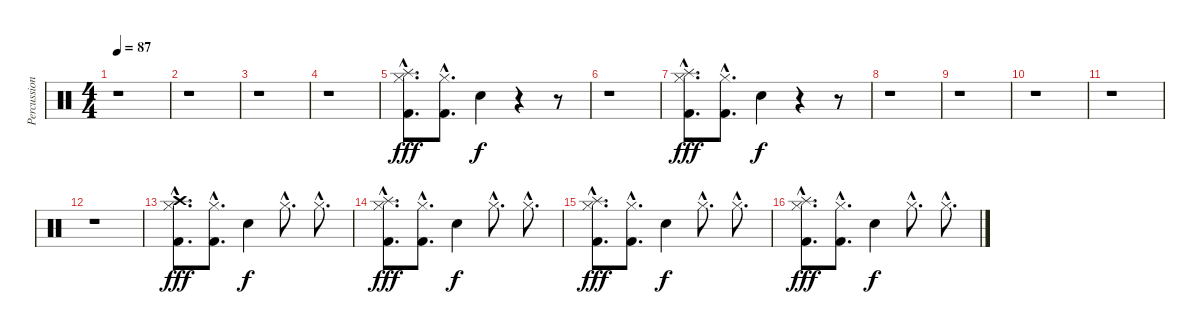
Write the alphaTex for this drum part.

\track ("Percussions" "Percussion") {instrument percussion}
\staff {score}
\articulation defaults
\ts (4 4)
\tempo 87
\clef neutral
\ks c
r.1{dy fff} |
r.1 |
r.1 |
r.1 |
("Hi-Hat (closed)"{hac} "Kick (hit) 2"{hac} "Splash (hit)"{hac}).8{d} ("Hi-Hat (closed)"{hac} "Kick (hit) 2"{hac}).8{d} "Electric Snare (hit)".4{dy f} r.4 r.8 |
r.1 |
("Hi-Hat (closed)"{hac} "Kick (hit) 2"{hac} "Splash (hit)"{hac}).8{d dy fff} ("Hi-Hat (closed)"{hac} "Kick (hit) 2"{hac}).8{d} "Electric Snare (hit)".4{dy f} r.4 r.8 |
r.1 |
r.1 |
r.1 |
r.1 |
r.1 |
("Hi-Hat (closed)"{hac} "Kick (hit) 2"{hac} "Crash high (hit)"{hac}).8{d dy fff} ("Hi-Hat (closed)"{hac} "Kick (hit) 2"{hac}).8{d} "Electric Snare (hit)".4{dy f} "Hi-Hat (closed)"{hac}.8{d} "Hi-Hat (closed)"{hac}.8{d} |
("Hi-Hat (closed)"{hac} "Kick (hit) 2"{hac} "Splash (hit)"{hac}).8{d dy fff} ("Hi-Hat (closed)"{hac} "Kick (hit) 2"{hac}).8{d} "Electric Snare (hit)".4{dy f} "Hi-Hat (closed)"{hac}.8{d} "Hi-Hat (closed)"{hac}.8{d} |
("Hi-Hat (closed)"{hac} "Kick (hit) 2"{hac} "Splash (hit)"{hac}).8{d dy fff} ("Hi-Hat (closed)"{hac} "Kick (hit) 2"{hac}).8{d} "Electric Snare (hit)".4{dy f} "Hi-Hat (closed)"{hac}.8{d} "Hi-Hat (closed)"{hac}.8{d} |
("Hi-Hat (closed)"{hac} "Kick (hit) 2"{hac} "Splash (hit)"{hac}).8{d dy fff} ("Hi-Hat (closed)"{hac} "Kick (hit) 2"{hac}).8{d} "Electric Snare (hit)".4{dy f} "Hi-Hat (closed)"{hac}.8{d} "Hi-Hat (closed)"{hac}.8{d}
